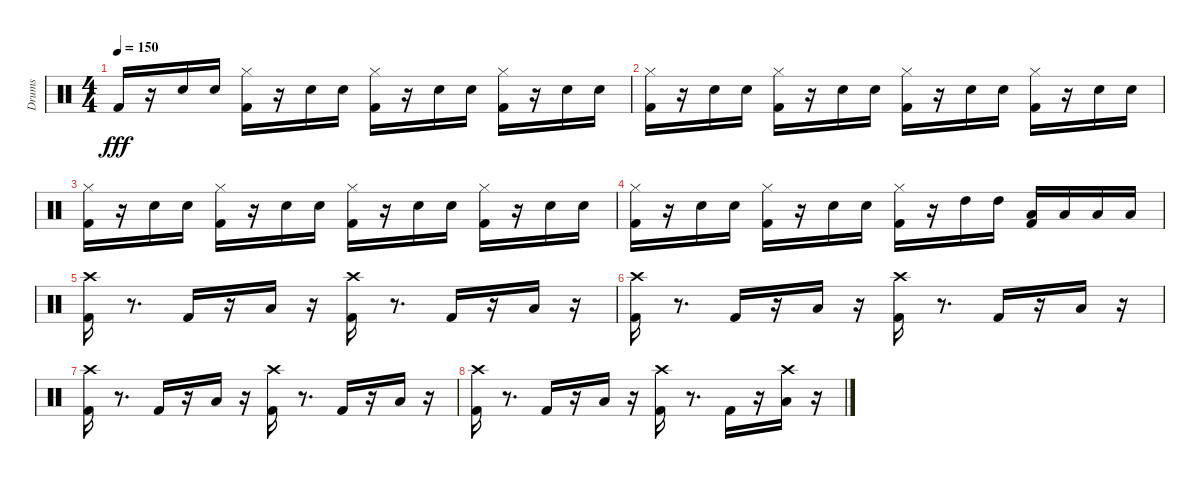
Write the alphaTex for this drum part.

\track ("Drums" "Drums") {instrument percussion}
\staff {score}
\articulation defaults
\ts (4 4)
\tempo 150
\clef neutral
\ks c "Kick (hit) 2".16{dy fff}
r.16 "Snare (hit) 2".16 "Snare (hit) 2".16 ("Kick (hit) 2" "Hi-Hat (closed)").16 r.16 "Snare (hit) 2".16 "Snare (hit) 2".16 ("Hi-Hat (closed)" "Kick (hit) 2").16 r.16 "Snare (hit) 2".16 "Snare (hit) 2".16 ("Kick (hit) 2" "Hi-Hat (closed)").16 r.16 "Snare (hit) 2".16 "Snare (hit) 2".16 |
("Hi-Hat (closed)" "Kick (hit) 2").16 r.16 "Snare (hit) 2".16 "Snare (hit) 2".16 ("Kick (hit) 2" "Hi-Hat (closed)").16 r.16 "Snare (hit) 2".16 "Snare (hit) 2".16 ("Kick (hit) 2" "Hi-Hat (closed)").16 r.16 "Snare (hit) 2".16 "Snare (hit) 2".16 ("Kick (hit) 2" "Hi-Hat (closed)").16 r.16 "Snare (hit) 2".16 "Snare (hit) 2".16 |
("Hi-Hat (closed)" "Kick (hit) 2").16 r.16 "Snare (hit) 2".16 "Snare (hit) 2".16 ("Hi-Hat (closed)" "Kick (hit) 2").16 r.16 "Snare (hit) 2".16 "Snare (hit) 2".16 ("Hi-Hat (closed)" "Kick (hit) 2").16 r.16 "Snare (hit) 2".16 "Snare (hit) 2".16 ("Kick (hit) 2" "Hi-Hat (closed)").16 r.16 "Snare (hit) 2".16 "Snare (hit) 2".16 |
("Kick (hit) 2" "Hi-Hat (closed)").16 r.16 "Snare (hit) 2".16 "Snare (hit) 2".16 ("Kick (hit) 2" "Hi-Hat (closed)").16 r.16 "Snare (hit) 2".16 "Snare (hit) 2".16 ("Kick (hit) 2" "Hi-Hat (closed)").16 r.16 "High Tom (hit)".16 "High Tom (hit)".16 ("Low Tom (hit)" "Kick (hit) 2").16 "Low Tom (hit)".16 "Low Floor Tom (hit)".16 "Low Floor Tom (hit)".16 |
("Crash high (hit)" "Kick (hit) 2").16 r.8{d} "Kick (hit) 2".16 r.16 "Low Floor Tom (hit)".16 r.16 ("Crash high (hit)" "Kick (hit) 2").16 r.8{d} "Kick (hit) 2".16 r.16 "Low Floor Tom (hit)".16 r.16 |
("Kick (hit) 2" "Crash high (hit)").16 r.8{d} "Kick (hit) 2".16 r.16 "Low Floor Tom (hit)".16 r.16 ("Crash high (hit)" "Kick (hit) 2").16 r.8{d} "Kick (hit) 2".16 r.16 "Low Floor Tom (hit)".16 r.16 |
("Crash high (hit)" "Kick (hit) 2").16 r.8{d} "Kick (hit) 2".16 r.16 "Low Floor Tom (hit)".16 r.16 ("Crash high (hit)" "Kick (hit) 2").16 r.8{d} "Kick (hit) 2".16 r.16 "Low Floor Tom (hit)".16 r.16 |
("Kick (hit) 2" "Crash high (hit)").16 r.8{d} "Kick (hit) 2".16 r.16 "Low Floor Tom (hit)".16 r.16 ("Kick (hit) 2" "Crash high (hit)").16 r.8{d} "Kick (hit) 2".16 r.16 ("Low Floor Tom (hit)" "Crash high (hit)").16 r.16
